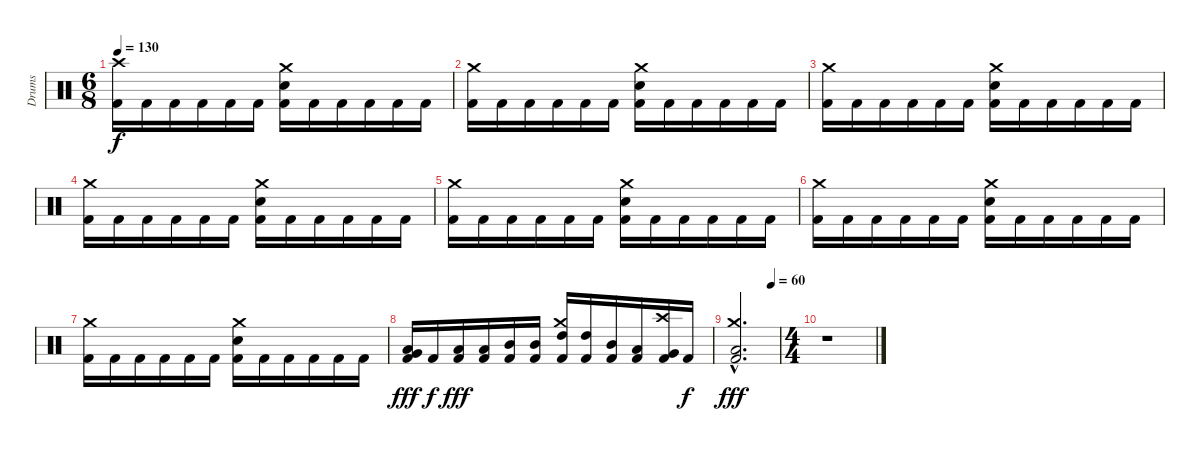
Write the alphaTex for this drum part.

\track ("Drums" "Drums") {instrument percussion}
\staff {score}
\articulation defaults
\ts (6 8)
\tempo 130
\clef neutral
\ks c
("Kick (hit) 2" "Crash high (hit)").16{dy f} "Kick (hit) 2".16 "Kick (hit) 2".16 "Kick (hit) 2".16 "Kick (hit) 2".16 "Kick (hit) 2".16 ("Kick (hit) 2" "Electric Snare (hit)" "Crash medium (hit)").16 "Kick (hit) 2".16 "Kick (hit) 2".16 "Kick (hit) 2".16 "Kick (hit) 2".16 "Kick (hit) 2".16 |
("Kick (hit) 2" "Crash medium (hit)").16 "Kick (hit) 2".16 "Kick (hit) 2".16 "Kick (hit) 2".16 "Kick (hit) 2".16 "Kick (hit) 2".16 ("Kick (hit) 2" "Electric Snare (hit)" "Crash medium (hit)").16 "Kick (hit) 2".16 "Kick (hit) 2".16 "Kick (hit) 2".16 "Kick (hit) 2".16 "Kick (hit) 2".16 |
("Kick (hit) 2" "Crash medium (hit)").16 "Kick (hit) 2".16 "Kick (hit) 2".16 "Kick (hit) 2".16 "Kick (hit) 2".16 "Kick (hit) 2".16 ("Kick (hit) 2" "Electric Snare (hit)" "Crash medium (hit)").16 "Kick (hit) 2".16 "Kick (hit) 2".16 "Kick (hit) 2".16 "Kick (hit) 2".16 "Kick (hit) 2".16 |
("Kick (hit) 2" "Crash medium (hit)").16 "Kick (hit) 2".16 "Kick (hit) 2".16 "Kick (hit) 2".16 "Kick (hit) 2".16 "Kick (hit) 2".16 ("Kick (hit) 2" "Electric Snare (hit)" "Crash medium (hit)").16 "Kick (hit) 2".16 "Kick (hit) 2".16 "Kick (hit) 2".16 "Kick (hit) 2".16 "Kick (hit) 2".16 |
("Kick (hit) 2" "Crash medium (hit)").16 "Kick (hit) 2".16 "Kick (hit) 2".16 "Kick (hit) 2".16 "Kick (hit) 2".16 "Kick (hit) 2".16 ("Kick (hit) 2" "Electric Snare (hit)" "Crash medium (hit)").16 "Kick (hit) 2".16 "Kick (hit) 2".16 "Kick (hit) 2".16 "Kick (hit) 2".16 "Kick (hit) 2".16 |
("Kick (hit) 2" "Crash medium (hit)").16 "Kick (hit) 2".16 "Kick (hit) 2".16 "Kick (hit) 2".16 "Kick (hit) 2".16 "Kick (hit) 2".16 ("Kick (hit) 2" "Electric Snare (hit)" "Crash medium (hit)").16 "Kick (hit) 2".16 "Kick (hit) 2".16 "Kick (hit) 2".16 "Kick (hit) 2".16 "Kick (hit) 2".16 |
("Kick (hit) 2" "Crash medium (hit)").16 "Kick (hit) 2".16 "Kick (hit) 2".16 "Kick (hit) 2".16 "Kick (hit) 2".16 "Kick (hit) 2".16 ("Kick (hit) 2" "Electric Snare (hit)" "Crash medium (hit)").16 "Kick (hit) 2".16 "Kick (hit) 2".16 "Kick (hit) 2".16 "Kick (hit) 2".16 "Kick (hit) 2".16 |
("Kick (hit) 2" "Very Low Tom (hit)" "Low Tom (hit)").16{dy fff} "Kick (hit) 2".16{dy f} ("Kick (hit) 2" "Low Tom (hit)").16{dy fff} ("Kick (hit) 2" "Low Tom (hit)").16 ("Kick (hit) 2" "Mid Tom (hit)").16 ("Kick (hit) 2" "Mid Tom (hit)").16 ("Kick (hit) 2" "High Tom (hit)" "Crash medium (hit)").16 ("Kick (hit) 2" "High Tom (hit)").16 ("Kick (hit) 2" "Mid Tom (hit)").16 ("Kick (hit) 2" "Low Tom (hit)").16 ("Kick (hit) 2" "Very Low Tom (hit)" "Crash high (hit)").16 "Kick (hit) 2".16{dy f} |
\tempo (60 0.8333333333333334)
("Kick (hit) 2"{hac} "Low Tom (hit)"{hac} "Crash medium (hit)"{hac}).2{d dy fff} |
\ts (4 4)
r.1
